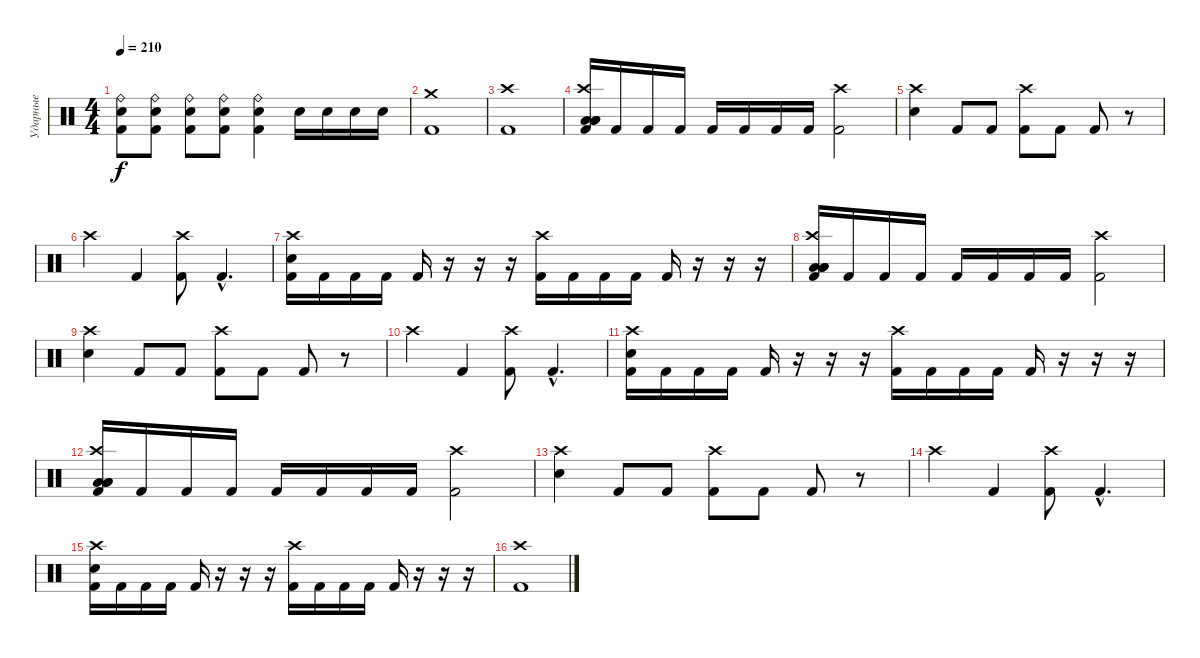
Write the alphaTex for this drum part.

\track ("Ударные" "Ударные") {instrument percussion}
\staff {score}
\articulation defaults
\ts (4 4)
\tempo 210
\clef neutral
\ks c
("Ride (bell)" "Electric Snare (hit)" "Kick (hit) 2").8{dy f} ("Ride (bell)" "Electric Snare (hit)" "Kick (hit) 2").8 ("Ride (bell)" "Electric Snare (hit)" "Kick (hit) 2").8 ("Ride (bell)" "Electric Snare (hit)" "Kick (hit) 2").8 ("Ride (bell)" "Electric Snare (hit)" "Kick (hit) 2").4 "Electric Snare (hit)".16 "Electric Snare (hit)".16 "Electric Snare (hit)".16 "Electric Snare (hit)".16 |
("Crash medium (hit)" "Kick (hit) 2").1 |
("Crash high (hit)" "Kick (hit) 2").1 |
("Crash high (hit)" "Low Floor Tom (hit)" "Low Floor Tom (hit)" "Low Floor Tom (hit)" "Kick (hit) 2").16 "Kick (hit) 2".16 "Kick (hit) 2".16 "Kick (hit) 2".16 "Kick (hit) 2".16 "Kick (hit) 2".16 "Kick (hit) 2".16 "Kick (hit) 2".16 ("Crash high (hit)" "Kick (hit) 2").2 |
("Crash high (hit)" "Electric Snare (hit)").4 "Kick (hit) 2".8 "Kick (hit) 2".8 ("Crash high (hit)" "Kick (hit) 2").8 "Kick (hit) 2".8 "Kick (hit) 2".8 r.8 |
"Crash high (hit)".4 "Kick (hit) 2".4 ("Crash high (hit)" "Kick (hit) 2").8 "Kick (hit) 2"{hac}.4{d} |
("Crash high (hit)" "Electric Snare (hit)" "Kick (hit) 2").16 "Kick (hit) 2".16 "Kick (hit) 2".16 "Kick (hit) 2".16 "Kick (hit) 2".16 r.16 r.16 r.16 ("Crash high (hit)" "Kick (hit) 2").16 "Kick (hit) 2".16 "Kick (hit) 2".16 "Kick (hit) 2".16 "Kick (hit) 2".16 r.16 r.16 r.16 |
("Crash high (hit)" "Low Floor Tom (hit)" "Low Floor Tom (hit)" "Low Floor Tom (hit)" "Kick (hit) 2").16 "Kick (hit) 2".16 "Kick (hit) 2".16 "Kick (hit) 2".16 "Kick (hit) 2".16 "Kick (hit) 2".16 "Kick (hit) 2".16 "Kick (hit) 2".16 ("Crash high (hit)" "Kick (hit) 2").2 |
("Crash high (hit)" "Electric Snare (hit)").4 "Kick (hit) 2".8 "Kick (hit) 2".8 ("Crash high (hit)" "Kick (hit) 2").8 "Kick (hit) 2".8 "Kick (hit) 2".8 r.8 |
"Crash high (hit)".4 "Kick (hit) 2".4 ("Crash high (hit)" "Kick (hit) 2").8 "Kick (hit) 2"{hac}.4{d} |
("Crash high (hit)" "Electric Snare (hit)" "Kick (hit) 2").16 "Kick (hit) 2".16 "Kick (hit) 2".16 "Kick (hit) 2".16 "Kick (hit) 2".16 r.16 r.16 r.16 ("Crash high (hit)" "Kick (hit) 2").16 "Kick (hit) 2".16 "Kick (hit) 2".16 "Kick (hit) 2".16 "Kick (hit) 2".16 r.16 r.16 r.16 |
("Crash high (hit)" "Low Floor Tom (hit)" "Low Floor Tom (hit)" "Low Floor Tom (hit)" "Kick (hit) 2").16 "Kick (hit) 2".16 "Kick (hit) 2".16 "Kick (hit) 2".16 "Kick (hit) 2".16 "Kick (hit) 2".16 "Kick (hit) 2".16 "Kick (hit) 2".16 ("Crash high (hit)" "Kick (hit) 2").2 |
("Crash high (hit)" "Electric Snare (hit)").4 "Kick (hit) 2".8 "Kick (hit) 2".8 ("Crash high (hit)" "Kick (hit) 2").8 "Kick (hit) 2".8 "Kick (hit) 2".8 r.8 |
"Crash high (hit)".4 "Kick (hit) 2".4 ("Crash high (hit)" "Kick (hit) 2").8 "Kick (hit) 2"{hac}.4{d} |
("Crash high (hit)" "Electric Snare (hit)" "Kick (hit) 2").16 "Kick (hit) 2".16 "Kick (hit) 2".16 "Kick (hit) 2".16 "Kick (hit) 2".16 r.16 r.16 r.16 ("Crash high (hit)" "Kick (hit) 2").16 "Kick (hit) 2".16 "Kick (hit) 2".16 "Kick (hit) 2".16 "Kick (hit) 2".16 r.16 r.16 r.16 |
("Crash high (hit)" "Kick (hit) 2").1
